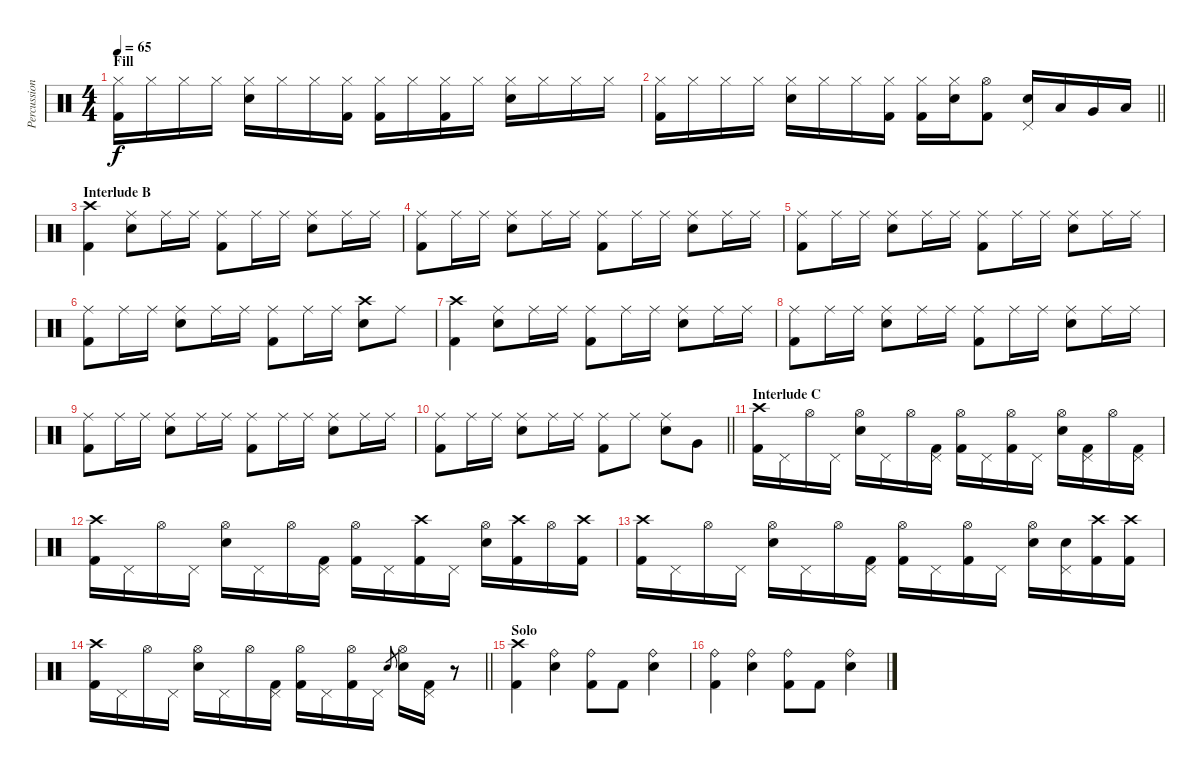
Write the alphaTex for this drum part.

\track ("Percussion" "Percussion") {instrument percussion}
\staff {score}
\articulation defaults
\ts (4 4)
\section ("" "Fill")
\tempo 65
\clef neutral
\ks c
("Hi-Hat (closed)" "Kick (hit) 2").16{dy f} "Hi-Hat (closed)".16 "Hi-Hat (closed)".16 "Hi-Hat (closed)".16 ("Hi-Hat (closed)" "Snare (hit) 2").16 "Hi-Hat (closed)".16 "Hi-Hat (closed)".16 ("Hi-Hat (closed)" "Kick (hit) 2").16 ("Hi-Hat (closed)" "Kick (hit) 2").16 "Hi-Hat (closed)".16 ("Hi-Hat (closed)" "Kick (hit) 2").16 "Hi-Hat (closed)".16 ("Hi-Hat (closed)" "Snare (hit) 2").16 "Hi-Hat (closed)".16 "Hi-Hat (closed)".16 "Hi-Hat (closed)".16 |
\barLineRight lightlight
("Hi-Hat (closed)" "Kick (hit) 2").16 "Hi-Hat (closed)".16 "Hi-Hat (closed)".16 "Hi-Hat (closed)".16 ("Hi-Hat (closed)" "Snare (hit) 2").16 "Hi-Hat (closed)".16 "Hi-Hat (closed)".16 ("Hi-Hat (closed)" "Kick (hit) 2").16 ("Hi-Hat (closed)" "Kick (hit) 2").16 ("Hi-Hat (closed)" "Snare (hit) 2").16 ("Hi-Hat (open)" "Kick (hit) 2").8 ("Pedal Hi-Hat (hit)" "Snare (hit) 2").16 "Low Tom (hit)".16 "Very Low Tom (hit)".16 "Low Floor Tom (hit)".16 |
\section ("" "Interlude B")
("Crash high (hit)" "Kick (hit) 2").4 ("Ride (middle)" "Snare (hit) 2").8 "Ride (middle)".16 "Ride (middle)".16 ("Ride (middle)" "Kick (hit) 2").8 "Ride (middle)".16 "Ride (middle)".16 ("Ride (middle)" "Snare (hit) 2").8 "Ride (middle)".16 "Ride (middle)".16 |
("Ride (middle)" "Kick (hit) 2").8 "Ride (middle)".16 "Ride (middle)".16 ("Ride (middle)" "Snare (hit) 2").8 "Ride (middle)".16 "Ride (middle)".16 ("Ride (middle)" "Kick (hit) 2").8 "Ride (middle)".16 "Ride (middle)".16 ("Ride (middle)" "Snare (hit) 2").8 "Ride (middle)".16 "Ride (middle)".16 |
("Ride (middle)" "Kick (hit) 2").8 "Ride (middle)".16 "Ride (middle)".16 ("Ride (middle)" "Snare (hit) 2").8 "Ride (middle)".16 "Ride (middle)".16 ("Ride (middle)" "Kick (hit) 2").8 "Ride (middle)".16 "Ride (middle)".16 ("Ride (middle)" "Snare (hit) 2").8 "Ride (middle)".16 "Ride (middle)".16 |
("Ride (middle)" "Kick (hit) 2").8 "Ride (middle)".16 "Ride (middle)".16 ("Ride (middle)" "Snare (hit) 2").8 "Ride (middle)".16 "Ride (middle)".16 ("Ride (middle)" "Kick (hit) 2").8 "Ride (middle)".16 "Ride (middle)".16 ("Crash high (hit)" "Snare (hit) 2").8 "Ride (middle)".8 |
("Crash high (hit)" "Kick (hit) 2").4 ("Ride (middle)" "Snare (hit) 2").8 "Ride (middle)".16 "Ride (middle)".16 ("Ride (middle)" "Kick (hit) 2").8 "Ride (middle)".16 "Ride (middle)".16 ("Ride (middle)" "Snare (hit) 2").8 "Ride (middle)".16 "Ride (middle)".16 |
("Ride (middle)" "Kick (hit) 2").8 "Ride (middle)".16 "Ride (middle)".16 ("Ride (middle)" "Snare (hit) 2").8 "Ride (middle)".16 "Ride (middle)".16 ("Ride (middle)" "Kick (hit) 2").8 "Ride (middle)".16 "Ride (middle)".16 ("Ride (middle)" "Snare (hit) 2").8 "Ride (middle)".16 "Ride (middle)".16 |
("Ride (middle)" "Kick (hit) 2").8 "Ride (middle)".16 "Ride (middle)".16 ("Ride (middle)" "Snare (hit) 2").8 "Ride (middle)".16 "Ride (middle)".16 ("Ride (middle)" "Kick (hit) 2").8 "Ride (middle)".16 "Ride (middle)".16 ("Ride (middle)" "Snare (hit) 2").8 "Ride (middle)".16 "Ride (middle)".16 |
\barLineRight lightlight
("Ride (middle)" "Kick (hit) 2").8 "Ride (middle)".16 "Ride (middle)".16 ("Ride (middle)" "Snare (hit) 2").8 "Ride (middle)".16 "Ride (middle)".16 ("Ride (middle)" "Kick (hit) 2").8 "Ride (middle)".8 ("Ride (middle)" "Snare (hit) 2").8 "Very Low Tom (hit)".8 |
\section ("" "Interlude C")
("Crash high (hit)" "Kick (hit) 2").16 "Pedal Hi-Hat (hit)".16 "Hi-Hat (open)".16 "Pedal Hi-Hat (hit)".16 ("Hi-Hat (open)" "Snare (hit) 2").16 "Pedal Hi-Hat (hit)".16 "Hi-Hat (open)".16 ("Pedal Hi-Hat (hit)" "Kick (hit) 2").16 ("Hi-Hat (open)" "Kick (hit) 2").16 "Pedal Hi-Hat (hit)".16 ("Hi-Hat (open)" "Kick (hit) 2").16 "Pedal Hi-Hat (hit)".16 ("Hi-Hat (open)" "Snare (hit) 2").16 ("Pedal Hi-Hat (hit)" "Kick (hit) 2").16 "Hi-Hat (open)".16 ("Pedal Hi-Hat (hit)" "Kick (hit) 2").16 |
("Crash high (hit)" "Kick (hit) 2").16 "Pedal Hi-Hat (hit)".16 "Hi-Hat (open)".16 "Pedal Hi-Hat (hit)".16 ("Hi-Hat (open)" "Snare (hit) 2").16 "Pedal Hi-Hat (hit)".16 "Hi-Hat (open)".16 ("Pedal Hi-Hat (hit)" "Kick (hit) 2").16 ("Hi-Hat (open)" "Kick (hit) 2").16 "Pedal Hi-Hat (hit)".16 ("Crash high (hit)" "Kick (hit) 2").16 "Pedal Hi-Hat (hit)".16 ("Hi-Hat (open)" "Snare (hit) 2").16 ("Crash high (hit)" "Kick (hit) 2").16 "Hi-Hat (open)".16 ("Crash high (hit)" "Kick (hit) 2").16 |
("Crash high (hit)" "Kick (hit) 2").16 "Pedal Hi-Hat (hit)".16 "Hi-Hat (open)".16 "Pedal Hi-Hat (hit)".16 ("Hi-Hat (open)" "Snare (hit) 2").16 "Pedal Hi-Hat (hit)".16 "Hi-Hat (open)".16 ("Pedal Hi-Hat (hit)" "Kick (hit) 2").16 ("Hi-Hat (open)" "Kick (hit) 2").16 "Pedal Hi-Hat (hit)".16 ("Hi-Hat (open)" "Kick (hit) 2").16 "Pedal Hi-Hat (hit)".16 ("Hi-Hat (open)" "Snare (hit) 2").16 ("Pedal Hi-Hat (hit)" "Snare (hit) 2").16 ("Crash high (hit)" "Kick (hit) 2").16 ("Crash high (hit)" "Kick (hit) 2").16 |
\barLineRight lightlight
("Crash high (hit)" "Kick (hit) 2").16 "Pedal Hi-Hat (hit)".16 "Hi-Hat (open)".16 "Pedal Hi-Hat (hit)".16 ("Hi-Hat (open)" "Snare (hit) 2").16 "Pedal Hi-Hat (hit)".16 "Hi-Hat (open)".16 ("Pedal Hi-Hat (hit)" "Kick (hit) 2").16 ("Hi-Hat (open)" "Kick (hit) 2").16 "Pedal Hi-Hat (hit)".16 ("Hi-Hat (open)" "Kick (hit) 2").16 "Pedal Hi-Hat (hit)".16 "Snare (hit) 2".8{gr} ("Hi-Hat (open)" "Snare (hit) 2").16 ("Pedal Hi-Hat (hit)" "Kick (hit) 2").16 r.8 |
\section ("" "Solo")
("Crash high (hit)" "Kick (hit) 2").4 ("Ride (bell)" "Snare (hit) 2").4 ("Ride (bell)" "Kick (hit) 2").8 "Kick (hit) 2".8 ("Ride (bell)" "Snare (hit) 2").4 |
("Ride (bell)" "Kick (hit) 2").4 ("Ride (bell)" "Snare (hit) 2").4 ("Ride (bell)" "Kick (hit) 2").8 "Kick (hit) 2".8 ("Ride (bell)" "Snare (hit) 2").4
